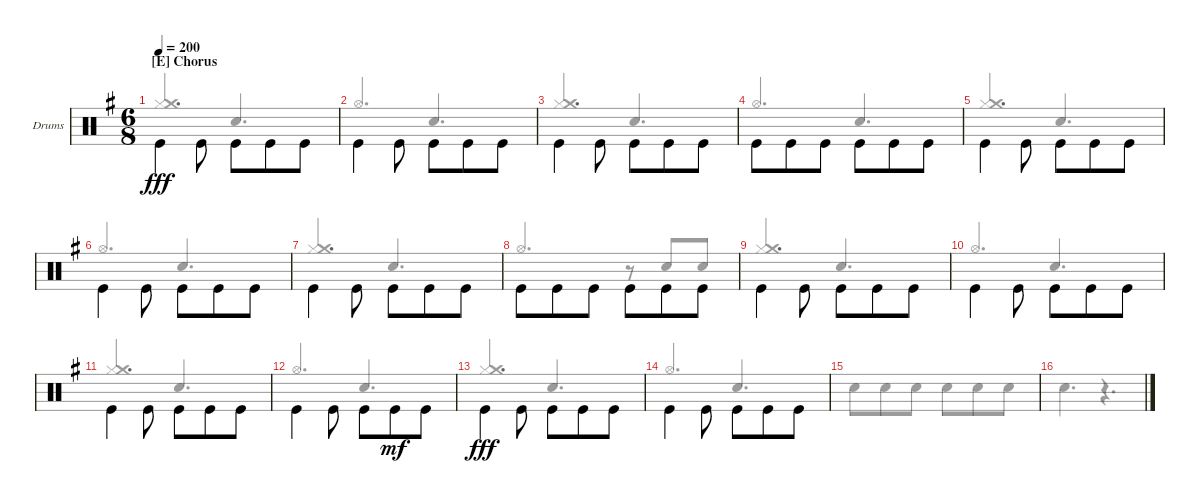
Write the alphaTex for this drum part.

\bracketExtendMode groupsimilarinstruments
\firstSystemTrackNameOrientation horizontal
\otherSystemsTrackNameOrientation horizontal
\track ("Drumkit" "Drums") {instrument percussion}
\staff {score}
\articulation defaults
\voice
\ts (6 8)
\section ("E" "Chorus")
\tempo 200
\clef neutral
\ks eminor "Kick (hit)".4{dy fff beam invert} "Kick (hit)".8{beam invert} "Kick (hit)".8{beam invert} "Kick (hit)".8 "Kick (hit)".8
|
"Kick (hit)".4{beam invert} "Kick (hit)".8{beam invert} "Kick (hit)".8 "Kick (hit)".8{beam invert} "Kick (hit)".8 |
"Kick (hit)".4{beam invert} "Kick (hit)".8{beam invert} "Kick (hit)".8{beam invert} "Kick (hit)".8 "Kick (hit)".8 |
"Kick (hit)".8{beam invert} "Kick (hit)".8{beam invert} "Kick (hit)".8{beam invert} "Kick (hit)".8 "Kick (hit)".8 "Kick (hit)".8{beam invert} |
"Kick (hit)".4{beam invert} "Kick (hit)".8{beam invert} "Kick (hit)".8{beam invert} "Kick (hit)".8 "Kick (hit)".8 |
"Kick (hit)".4{beam invert} "Kick (hit)".8{beam invert} "Kick (hit)".8 "Kick (hit)".8{beam invert} "Kick (hit)".8 |
"Kick (hit)".4{beam invert} "Kick (hit)".8{beam invert} "Kick (hit)".8{beam invert} "Kick (hit)".8 "Kick (hit)".8 |
"Kick (hit)".8{beam invert} "Kick (hit)".8{beam invert} "Kick (hit)".8{beam invert} "Kick (hit)".8 "Kick (hit)".8 "Kick (hit)".8{beam invert} |
"Kick (hit)".4{beam invert} "Kick (hit)".8{beam invert} "Kick (hit)".8{beam invert} "Kick (hit)".8 "Kick (hit)".8 |
"Kick (hit)".4{beam invert} "Kick (hit)".8{beam invert} "Kick (hit)".8 "Kick (hit)".8{beam invert} "Kick (hit)".8 |
"Kick (hit)".4{beam invert} "Kick (hit)".8{beam invert} "Kick (hit)".8{beam invert} "Kick (hit)".8 "Kick (hit)".8 |
"Kick (hit)".4{beam invert} "Kick (hit)".8{beam invert} "Kick (hit)".8 "Kick (hit)".8{dy mf beam invert} "Kick (hit)".8 |
"Kick (hit)".4{dy fff beam invert} "Kick (hit)".8{beam invert} "Kick (hit)".8{beam invert} "Kick (hit)".8 "Kick (hit)".8 |
"Kick (hit)".4{beam invert} "Kick (hit)".8{beam invert} "Kick (hit)".8 "Kick (hit)".8{beam invert} "Kick (hit)".8 |
|
\voice
\clef neutral
\ottava regular
\simile none
\ks eminor
("Hi-Hat (closed)" "Crash medium (hit)").4{d dy fff beam invert} "Snare (hit) 2".4{d beam invert} |
"Hi-Hat (open)".4{d beam invert} "Snare (hit) 2".4{d beam invert} |
("Hi-Hat (closed)" "Crash medium (hit)").4{d beam invert} "Snare (hit) 2".4{d beam invert} |
"Hi-Hat (open)".4{d beam invert} "Snare (hit) 2".4{d beam invert} |
("Hi-Hat (closed)" "Crash medium (hit)").4{d beam invert} "Snare (hit) 2".4{d beam invert} |
"Hi-Hat (open)".4{d beam invert} "Snare (hit) 2".4{d beam invert} |
("Hi-Hat (closed)" "Crash medium (hit)").4{d beam invert} "Snare (hit) 2".4{d beam invert} |
"Hi-Hat (open)".4{d beam invert} r.8 "Snare (hit) 2".8{beam invert} "Snare (hit) 2".8 |
("Hi-Hat (closed)" "Crash medium (hit)").4{d beam invert} "Snare (hit) 2".4{d beam invert} |
"Hi-Hat (open)".4{d beam invert} "Snare (hit) 2".4{d beam invert} |
("Hi-Hat (closed)" "Crash medium (hit)").4{d beam invert} "Snare (hit) 2".4{d beam invert} |
"Hi-Hat (open)".4{d beam invert} "Snare (hit) 2".4{d beam invert} |
("Hi-Hat (closed)" "Crash medium (hit)").4{d beam invert} "Snare (hit) 2".4{d beam invert} |
"Hi-Hat (open)".4{d beam invert} "Snare (hit) 2".4{d beam invert} |
"Snare (hit) 2".8 "Snare (hit) 2".8 "Snare (hit) 2".8 "Snare (hit) 2".8 "Snare (hit) 2".8 "Snare (hit) 2".8 |
"Snare (hit) 2".4{d} r.4{d}
